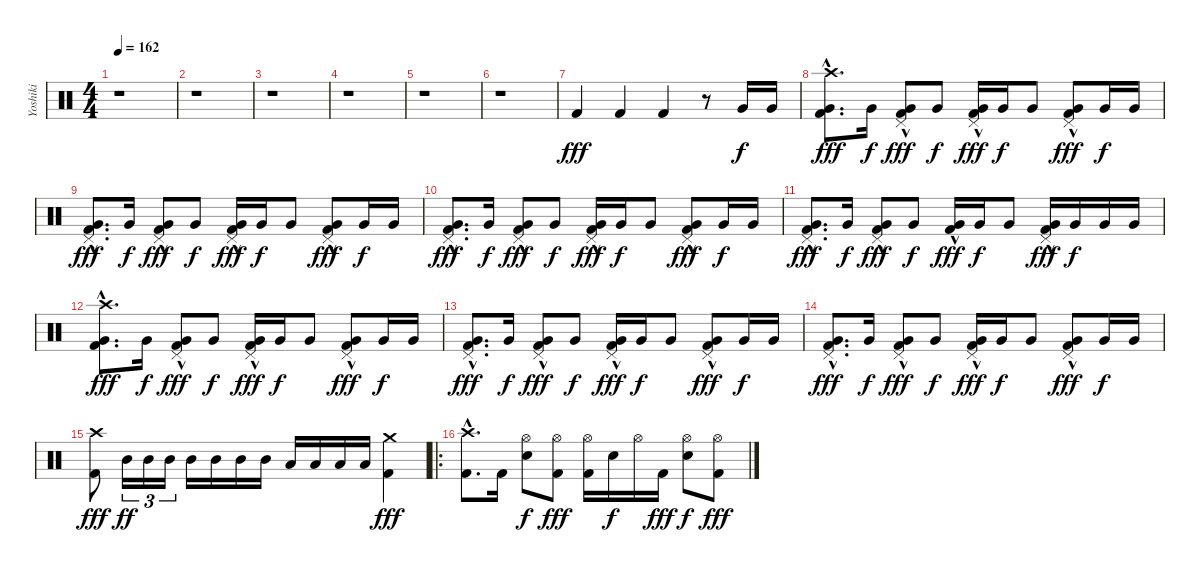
\track ("Yoshiki" "Yoshiki") {instrument percussion}
\staff {score}
\articulation defaults
\ts (4 4)
\tempo 162
\clef neutral
\ks c
r.1{dy fff} |
r.1 |
r.1 |
r.1 |
r.1 |
r.1 |
"Kick (hit) 2".4 "Kick (hit) 2".4 "Kick (hit) 2".4 r.8 "Very Low Tom (hit)".16{dy f} "Very Low Tom (hit)".16 |
("Crash high (hit)"{hac} "Very Low Tom (hit)"{hac} "Kick (hit) 2"{hac}).8{d dy fff} "Very Low Tom (hit)".16{dy f} ("Pedal Hi-Hat (hit)" "Very Low Tom (hit)"{hac} "Kick (hit) 2").8{dy fff} "Very Low Tom (hit)".8{dy f} ("Pedal Hi-Hat (hit)" "Very Low Tom (hit)"{hac} "Kick (hit) 2").16{dy fff} "Very Low Tom (hit)".16{dy f} "Very Low Tom (hit)".8 ("Pedal Hi-Hat (hit)" "Very Low Tom (hit)"{hac} "Kick (hit) 2").8{dy fff} "Very Low Tom (hit)".16{dy f} "Very Low Tom (hit)".16 |
("Pedal Hi-Hat (hit)"{hac} "Very Low Tom (hit)"{hac} "Kick (hit) 2"{hac}).8{d dy fff} "Very Low Tom (hit)".16{dy f} ("Pedal Hi-Hat (hit)" "Very Low Tom (hit)"{hac} "Kick (hit) 2").8{dy fff} "Very Low Tom (hit)".8{dy f} ("Pedal Hi-Hat (hit)" "Very Low Tom (hit)"{hac} "Kick (hit) 2").16{dy fff} "Very Low Tom (hit)".16{dy f} "Very Low Tom (hit)".8 ("Pedal Hi-Hat (hit)" "Very Low Tom (hit)"{hac} "Kick (hit) 2").8{dy fff} "Very Low Tom (hit)".16{dy f} "Very Low Tom (hit)".16 |
("Pedal Hi-Hat (hit)"{hac} "Very Low Tom (hit)"{hac} "Kick (hit) 2"{hac}).8{d dy fff} "Very Low Tom (hit)".16{dy f} ("Pedal Hi-Hat (hit)" "Very Low Tom (hit)"{hac} "Kick (hit) 2").8{dy fff} "Very Low Tom (hit)".8{dy f} ("Pedal Hi-Hat (hit)" "Very Low Tom (hit)"{hac} "Kick (hit) 2").16{dy fff} "Very Low Tom (hit)".16{dy f} "Very Low Tom (hit)".8 ("Pedal Hi-Hat (hit)" "Very Low Tom (hit)"{hac} "Kick (hit) 2").8{dy fff} "Very Low Tom (hit)".16{dy f} "Very Low Tom (hit)".16 |
("Pedal Hi-Hat (hit)" "Very Low Tom (hit)"{hac} "Kick (hit) 2"{hac}).8{d dy fff} "Very Low Tom (hit)".16{dy f} ("Pedal Hi-Hat (hit)" "Very Low Tom (hit)"{hac} "Kick (hit) 2").8{dy fff} "Very Low Tom (hit)".8{dy f} ("Very Low Tom (hit)"{hac} "Kick (hit) 2").16{dy fff} "Very Low Tom (hit)".16{dy f} "Very Low Tom (hit)".8 ("Pedal Hi-Hat (hit)" "Very Low Tom (hit)"{hac} "Kick (hit) 2").16{dy fff} "Very Low Tom (hit)".16{dy f} "Very Low Tom (hit)".16 "Very Low Tom (hit)".16 |
("Crash high (hit)"{hac} "Very Low Tom (hit)"{hac} "Kick (hit) 2"{hac}).8{d dy fff} "Very Low Tom (hit)".16{dy f} ("Pedal Hi-Hat (hit)" "Very Low Tom (hit)"{hac} "Kick (hit) 2").8{dy fff} "Very Low Tom (hit)".8{dy f} ("Pedal Hi-Hat (hit)" "Very Low Tom (hit)"{hac} "Kick (hit) 2").16{dy fff} "Very Low Tom (hit)".16{dy f} "Very Low Tom (hit)".8 ("Pedal Hi-Hat (hit)" "Very Low Tom (hit)"{hac} "Kick (hit) 2").8{dy fff} "Very Low Tom (hit)".16{dy f} "Very Low Tom (hit)".16 |
("Pedal Hi-Hat (hit)"{hac} "Very Low Tom (hit)"{hac} "Kick (hit) 2"{hac}).8{d dy fff} "Very Low Tom (hit)".16{dy f} ("Pedal Hi-Hat (hit)" "Very Low Tom (hit)"{hac} "Kick (hit) 2").8{dy fff} "Very Low Tom (hit)".8{dy f} ("Pedal Hi-Hat (hit)" "Very Low Tom (hit)"{hac} "Kick (hit) 2").16{dy fff} "Very Low Tom (hit)".16{dy f} "Very Low Tom (hit)".8 ("Pedal Hi-Hat (hit)" "Very Low Tom (hit)"{hac} "Kick (hit) 2").8{dy fff} "Very Low Tom (hit)".16{dy f} "Very Low Tom (hit)".16 |
("Pedal Hi-Hat (hit)"{hac} "Very Low Tom (hit)"{hac} "Kick (hit) 2"{hac}).8{d dy fff} "Very Low Tom (hit)".16{dy f} ("Pedal Hi-Hat (hit)" "Very Low Tom (hit)"{hac} "Kick (hit) 2").8{dy fff} "Very Low Tom (hit)".8{dy f} ("Pedal Hi-Hat (hit)" "Very Low Tom (hit)"{hac} "Kick (hit) 2").16{dy fff} "Very Low Tom (hit)".16{dy f} "Very Low Tom (hit)".8 ("Pedal Hi-Hat (hit)" "Very Low Tom (hit)"{hac} "Kick (hit) 2").8{dy fff} "Very Low Tom (hit)".16{dy f} "Very Low Tom (hit)".16 |
("Crash high (hit)" "Kick (hit) 2").8{dy fff} "Mid Tom (hit)".16{tu (3 2) dy ff} "Mid Tom (hit)".16{tu (3 2)} "Mid Tom (hit)".16{tu (3 2)} "Mid Tom (hit)".16 "Mid Tom (hit)".16 "Mid Tom (hit)".16 "Mid Tom (hit)".16 "Low Tom (hit)".16 "Low Tom (hit)".16 "Low Tom (hit)".16 "Low Tom (hit)".16 ("Crash medium (hit)" "Kick (hit) 2").4{dy fff} |
\ro
("Crash high (hit)"{hac} "Kick (hit) 2"{hac}).8{d} "Kick (hit) 2".16 ("Hi-Hat (open)" "Electric Snare (hit)").8{dy f} ("Hi-Hat (open)" "Kick (hit) 2").8{dy fff} ("Hi-Hat (open)" "Kick (hit) 2").16 "Electric Snare (hit)".16{dy f} "Hi-Hat (open)".16 "Kick (hit) 2".16{dy fff} ("Hi-Hat (open)" "Electric Snare (hit)").8{dy f} ("Hi-Hat (open)" "Kick (hit) 2").8{dy fff}
